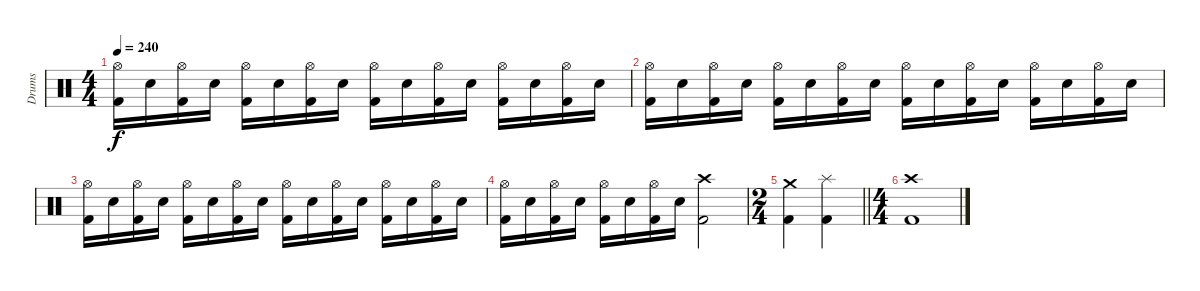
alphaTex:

\track ("Drums" "Drums") {instrument percussion}
\staff {score}
\articulation defaults
\ts (4 4)
\tempo 240
\clef neutral
\ks c
("Hi-Hat (open)" "Kick (hit) 2").16{dy f} "Electric Snare (hit)".16 ("Hi-Hat (open)" "Kick (hit) 2").16 "Electric Snare (hit)".16 ("Hi-Hat (open)" "Kick (hit) 2").16 "Electric Snare (hit)".16 ("Hi-Hat (open)" "Kick (hit) 2").16 "Electric Snare (hit)".16 ("Hi-Hat (open)" "Kick (hit) 2").16 "Electric Snare (hit)".16 ("Hi-Hat (open)" "Kick (hit) 2").16 "Electric Snare (hit)".16 ("Hi-Hat (open)" "Kick (hit) 2").16 "Electric Snare (hit)".16 ("Hi-Hat (open)" "Kick (hit) 2").16 "Electric Snare (hit)".16 |
("Hi-Hat (open)" "Kick (hit) 2").16 "Electric Snare (hit)".16 ("Hi-Hat (open)" "Kick (hit) 2").16 "Electric Snare (hit)".16 ("Hi-Hat (open)" "Kick (hit) 2").16 "Electric Snare (hit)".16 ("Hi-Hat (open)" "Kick (hit) 2").16 "Electric Snare (hit)".16 ("Hi-Hat (open)" "Kick (hit) 2").16 "Electric Snare (hit)".16 ("Hi-Hat (open)" "Kick (hit) 2").16 "Electric Snare (hit)".16 ("Hi-Hat (open)" "Kick (hit) 2").16 "Electric Snare (hit)".16 ("Hi-Hat (open)" "Kick (hit) 2").16 "Electric Snare (hit)".16 |
("Hi-Hat (open)" "Kick (hit) 2").16 "Electric Snare (hit)".16 ("Hi-Hat (open)" "Kick (hit) 2").16 "Electric Snare (hit)".16 ("Hi-Hat (open)" "Kick (hit) 2").16 "Electric Snare (hit)".16 ("Hi-Hat (open)" "Kick (hit) 2").16 "Electric Snare (hit)".16 ("Hi-Hat (open)" "Kick (hit) 2").16 "Electric Snare (hit)".16 ("Hi-Hat (open)" "Kick (hit) 2").16 "Electric Snare (hit)".16 ("Hi-Hat (open)" "Kick (hit) 2").16 "Electric Snare (hit)".16 ("Hi-Hat (open)" "Kick (hit) 2").16 "Electric Snare (hit)".16 |
("Hi-Hat (open)" "Kick (hit) 2").16 "Electric Snare (hit)".16 ("Hi-Hat (open)" "Kick (hit) 2").16 "Electric Snare (hit)".16 ("Hi-Hat (open)" "Kick (hit) 2").16 "Electric Snare (hit)".16 ("Hi-Hat (open)" "Kick (hit) 2").16 "Electric Snare (hit)".16 ("Crash high (hit)" "Kick (hit) 2").2 |
\ts (2 4)
\barLineRight lightlight
("Crash medium (hit)" "Kick (hit) 2").4 ("Splash (hit)" "Kick (hit) 2").4 |
\ts (4 4)
("Crash high (hit)" "Kick (hit) 2").1
